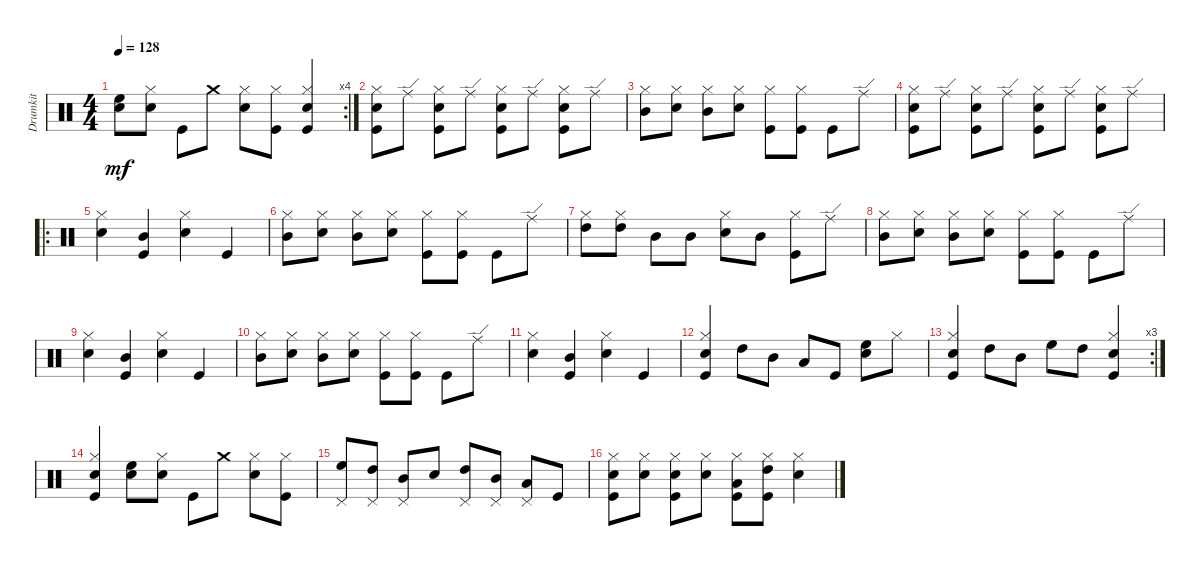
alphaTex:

\track ("Drumkit" "Drumkit") {instrument percussion}
\staff {score}
\articulation defaults
\rc 4
\ts (4 4)
\tempo 128
\clef neutral
\ks c
("Snare (hit) 2" "High Floor Tom (hit)").8{dy mf} ("Hi-Hat (closed)" "Snare (hit) 2").8 "Kick (hit)".8 "Crash medium (hit)".8 ("Hi-Hat (closed)" "Snare (hit) 2").8 ("Hi-Hat (closed)" "Kick (hit)").8 ("Hi-Hat (closed)" "Snare (hit) 2" "Kick (hit)").4 |
("Hi-Hat (closed)" "Snare (hit) 2" "Kick (hit)").8 "Ride (edge)".8 ("Hi-Hat (closed)" "Snare (hit) 2" "Kick (hit)").8 "Ride (edge)".8 ("Hi-Hat (closed)" "Snare (hit) 2" "Kick (hit)").8 "Ride (edge)".8 ("Hi-Hat (closed)" "Snare (hit) 2" "Kick (hit)").8 "Ride (edge)".8 |
("Mid Tom (hit)" "Hi-Hat (closed)").8 ("Hi-Hat (closed)" "Snare (hit) 2").8 ("Hi-Hat (closed)" "Mid Tom (hit)").8 ("Hi-Hat (closed)" "Snare (hit) 2").8 ("Kick (hit)" "Hi-Hat (closed)").8 ("Kick (hit)" "Hi-Hat (closed)").8 "Kick (hit)".8 "Ride (edge)".8 |
("Hi-Hat (closed)" "Snare (hit) 2" "Kick (hit)").8 "Ride (edge)".8 ("Hi-Hat (closed)" "Snare (hit) 2" "Kick (hit)").8 "Ride (edge)".8 ("Hi-Hat (closed)" "Snare (hit) 2" "Kick (hit)").8 "Ride (edge)".8 ("Hi-Hat (closed)" "Snare (hit) 2" "Kick (hit)").8 "Ride (edge)".8 |
\ro
("Hi-Hat (closed)" "Snare (hit) 2").4 ("Kick (hit)" "Mid Tom (hit)").4 ("Snare (hit) 2" "Hi-Hat (closed)").4 "Kick (hit)".4 |
("Mid Tom (hit)" "Hi-Hat (closed)").8 ("Hi-Hat (closed)" "Snare (hit) 2").8 ("Hi-Hat (closed)" "Mid Tom (hit)").8 ("Hi-Hat (closed)" "Snare (hit) 2").8 ("Kick (hit)" "Hi-Hat (closed)").8 ("Kick (hit)" "Hi-Hat (closed)").8 "Kick (hit)".8 "Ride (edge)".8 |
("High Tom (hit)" "Hi-Hat (closed)").8 ("High Tom (hit)" "Hi-Hat (closed)").8 "Mid Tom (hit)".8 "Mid Tom (hit)".8 ("Snare (hit) 2" "Hi-Hat (closed)").8 "Mid Tom (hit)".8 ("Kick (hit)" "Hi-Hat (closed)").8 "Ride (edge)".8 |
("Mid Tom (hit)" "Hi-Hat (closed)").8 ("Hi-Hat (closed)" "Snare (hit) 2").8 ("Hi-Hat (closed)" "Mid Tom (hit)").8 ("Hi-Hat (closed)" "Snare (hit) 2").8 ("Kick (hit)" "Hi-Hat (closed)").8 ("Kick (hit)" "Hi-Hat (closed)").8 "Kick (hit)".8 "Ride (edge)".8 |
("Hi-Hat (closed)" "Snare (hit) 2").4 ("Kick (hit)" "Mid Tom (hit)").4 ("Snare (hit) 2" "Hi-Hat (closed)").4 "Kick (hit)".4 |
("Mid Tom (hit)" "Hi-Hat (closed)").8 ("Hi-Hat (closed)" "Snare (hit) 2").8 ("Hi-Hat (closed)" "Mid Tom (hit)").8 ("Hi-Hat (closed)" "Snare (hit) 2").8 ("Kick (hit)" "Hi-Hat (closed)").8 ("Kick (hit)" "Hi-Hat (closed)").8 "Kick (hit)".8 "Ride (edge)".8 |
("Hi-Hat (closed)" "Snare (hit) 2").4 ("Kick (hit)" "Mid Tom (hit)").4 ("Snare (hit) 2" "Hi-Hat (closed)").4 "Kick (hit)".4 |
("Hi-Hat (closed)" "Snare (hit) 2" "Kick (hit)").4 "High Tom (hit)".8 "Mid Tom (hit)".8 "Low Tom (hit)".8 "Kick (hit)".8 ("Snare (hit) 2" "High Floor Tom (hit)").8 "Hi-Hat (closed)".8 |
\rc 3
("Hi-Hat (closed)" "Snare (hit) 2" "Kick (hit)").4 "High Tom (hit)".8 "Mid Tom (hit)".8 "High Floor Tom (hit)".8 "High Tom (hit)".8 ("Hi-Hat (closed)" "Snare (hit) 2" "Kick (hit)").4 |
("Hi-Hat (closed)" "Snare (hit) 2" "Kick (hit)").4 ("Snare (hit) 2" "High Floor Tom (hit)").8 ("Hi-Hat (closed)" "Snare (hit) 2").8 "Kick (hit)".8 "Crash medium (hit)".8 ("Hi-Hat (closed)" "Snare (hit) 2").8 ("Hi-Hat (closed)" "Kick (hit)").8 |
("High Floor Tom (hit)" "Pedal Hi-Hat (hit)").8 ("High Tom (hit)" "Pedal Hi-Hat (hit)").8 ("Mid Tom (hit)" "Pedal Hi-Hat (hit)").8 "Snare (hit) 2".8 ("High Tom (hit)" "Pedal Hi-Hat (hit)").8 ("Mid Tom (hit)" "Pedal Hi-Hat (hit)").8 ("Low Tom (hit)" "Pedal Hi-Hat (hit)").8 "Kick (hit)".8 |
("Hi-Hat (closed)" "Snare (hit) 2" "Kick (hit)").8 ("Hi-Hat (closed)" "Snare (hit) 2").8 ("Snare (hit) 2" "Hi-Hat (closed)" "Kick (hit)").8 ("Snare (hit) 2" "Hi-Hat (closed)").8 ("Kick (hit)" "Hi-Hat (closed)" "Low Tom (hit)").8 ("Hi-Hat (closed)" "Kick (hit)" "High Tom (hit)").8 ("Snare (hit) 2" "Hi-Hat (closed)").4
